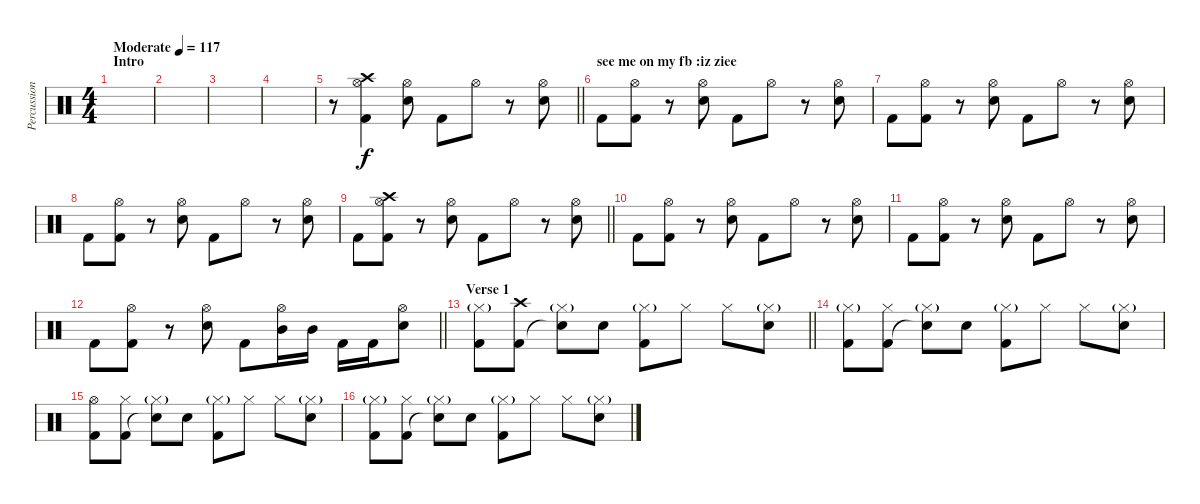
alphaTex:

\track ("Percussion 1" "Percussion") {instrument percussion}
\staff {score}
\articulation defaults
\ts (4 4)
\section ("" "Intro")
\tempo (117 "Moderate")
\clef neutral
\ks c
|
|
|
|
\barLineRight lightlight
r.8 ("Hi-Hat (open)" "Crash high (hit)" "Kick (hit) 2").4 ("Hi-Hat (open)" "Electric Snare (hit)").8 "Kick (hit) 2".8 "Hi-Hat (open)".8 r.8 ("Hi-Hat (open)" "Electric Snare (hit)").8 |
\section ("" "see me on my fb :iz ziee")
"Kick (hit) 2".8 ("Hi-Hat (open)" "Kick (hit) 2").8 r.8 ("Hi-Hat (open)" "Electric Snare (hit)").8 "Kick (hit) 2".8 "Hi-Hat (open)".8 r.8 ("Hi-Hat (open)" "Electric Snare (hit)").8 |
"Kick (hit) 2".8 ("Hi-Hat (open)" "Kick (hit) 2").8 r.8 ("Hi-Hat (open)" "Electric Snare (hit)").8 "Kick (hit) 2".8 "Hi-Hat (open)".8 r.8 ("Hi-Hat (open)" "Electric Snare (hit)").8 |
"Kick (hit) 2".8 ("Hi-Hat (open)" "Kick (hit) 2").8 r.8 ("Hi-Hat (open)" "Electric Snare (hit)").8 "Kick (hit) 2".8 "Hi-Hat (open)".8 r.8 ("Hi-Hat (open)" "Electric Snare (hit)").8 |
\barLineRight lightlight "Kick (hit) 2".8
("Hi-Hat (open)" "Crash high (hit)" "Kick (hit) 2").8 r.8 ("Hi-Hat (open)" "Electric Snare (hit)").8 "Kick (hit) 2".8 "Hi-Hat (open)".8 r.8 ("Hi-Hat (open)" "Electric Snare (hit)").8 |
"Kick (hit) 2".8 ("Hi-Hat (open)" "Kick (hit) 2").8 r.8 ("Hi-Hat (open)" "Electric Snare (hit)").8 "Kick (hit) 2".8 "Hi-Hat (open)".8 r.8 ("Hi-Hat (open)" "Electric Snare (hit)").8 |
"Kick (hit) 2".8 ("Hi-Hat (open)" "Kick (hit) 2").8 r.8 ("Hi-Hat (open)" "Electric Snare (hit)").8 "Kick (hit) 2".8 "Hi-Hat (open)".8 r.8 ("Hi-Hat (open)" "Electric Snare (hit)").8 |
\barLineRight lightlight "Kick (hit) 2".8
("Hi-Hat (open)" "Kick (hit) 2").8 r.8 ("Hi-Hat (open)" "Electric Snare (hit)").8 "Kick (hit) 2".8 ("Hi-Hat (open)" "Mid Tom (hit)").16 "Mid Tom (hit)".16 "Kick (hit) 2".16 "Kick (hit) 2".16 ("Hi-Hat (open)" "Electric Snare (hit)").8 |
\section ("" "Verse 1")
\barLineRight lightlight
("Hi-Hat (closed)"{g} "Kick (hit) 2").8 ("Crash high (hit)" "Kick (hit) 2").8 ("Hi-Hat (closed)"{g} "Snare (hit)"{t}).8 "Electric Snare (hit)".8 ("Hi-Hat (closed)"{g} "Kick (hit) 2").8 "Hi-Hat (closed)".8 "Hi-Hat (closed)".8 ("Hi-Hat (closed)"{g} "Electric Snare (hit)").8 |
("Hi-Hat (closed)"{g} "Kick (hit) 2").8 ("Hi-Hat (closed)" "Kick (hit) 2").8 ("Hi-Hat (closed)"{g} "Snare (hit)"{t}).8 "Electric Snare (hit)".8 ("Hi-Hat (closed)"{g} "Kick (hit) 2").8 "Hi-Hat (closed)".8 "Hi-Hat (closed)".8 ("Hi-Hat (closed)"{g} "Electric Snare (hit)").8 |
("Hi-Hat (open)" "Kick (hit) 2").8 ("Hi-Hat (closed)" "Kick (hit) 2").8 ("Hi-Hat (closed)"{g} "Snare (hit)"{t}).8 "Electric Snare (hit)".8 ("Hi-Hat (closed)"{g} "Kick (hit) 2").8 "Hi-Hat (closed)".8 "Hi-Hat (closed)".8 ("Hi-Hat (closed)"{g} "Electric Snare (hit)").8 |
("Hi-Hat (closed)"{g} "Kick (hit) 2").8 ("Hi-Hat (closed)" "Kick (hit) 2").8 ("Hi-Hat (closed)"{g} "Snare (hit)"{t}).8 "Electric Snare (hit)".8 ("Hi-Hat (closed)"{g} "Kick (hit) 2").8 "Hi-Hat (closed)".8 "Hi-Hat (closed)".8 ("Hi-Hat (closed)"{g} "Electric Snare (hit)").8
